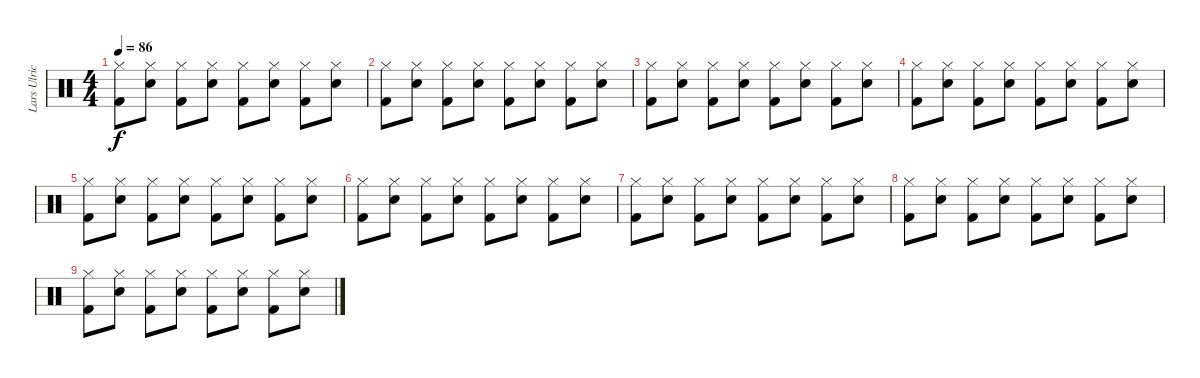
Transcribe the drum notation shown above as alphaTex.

\track ("Lars Ulrich" "Lars Ulric") {instrument percussion}
\staff {score}
\articulation defaults
\ts (4 4)
\tempo 86
\clef neutral
\ks c
("Hi-Hat (closed)" "Kick (hit) 2").8{dy f volume 14} ("Hi-Hat (closed)" "Electric Snare (hit)").8 ("Hi-Hat (closed)" "Kick (hit) 2").8 ("Hi-Hat (closed)" "Electric Snare (hit)").8 ("Hi-Hat (closed)" "Kick (hit) 2").8 ("Hi-Hat (closed)" "Electric Snare (hit)").8 ("Hi-Hat (closed)" "Kick (hit) 2").8 ("Hi-Hat (closed)" "Electric Snare (hit)").8 |
("Hi-Hat (closed)" "Kick (hit) 2").8{volume 13} ("Hi-Hat (closed)" "Electric Snare (hit)").8 ("Hi-Hat (closed)" "Kick (hit) 2").8 ("Hi-Hat (closed)" "Electric Snare (hit)").8 ("Hi-Hat (closed)" "Kick (hit) 2").8 ("Hi-Hat (closed)" "Electric Snare (hit)").8 ("Hi-Hat (closed)" "Kick (hit) 2").8 ("Hi-Hat (closed)" "Electric Snare (hit)").8 |
("Hi-Hat (closed)" "Kick (hit) 2").8{volume 12} ("Hi-Hat (closed)" "Electric Snare (hit)").8 ("Hi-Hat (closed)" "Kick (hit) 2").8 ("Hi-Hat (closed)" "Electric Snare (hit)").8 ("Hi-Hat (closed)" "Kick (hit) 2").8 ("Hi-Hat (closed)" "Electric Snare (hit)").8 ("Hi-Hat (closed)" "Kick (hit) 2").8 ("Hi-Hat (closed)" "Electric Snare (hit)").8 |
("Hi-Hat (closed)" "Kick (hit) 2").8{volume 10} ("Hi-Hat (closed)" "Electric Snare (hit)").8 ("Hi-Hat (closed)" "Kick (hit) 2").8 ("Hi-Hat (closed)" "Electric Snare (hit)").8 ("Hi-Hat (closed)" "Kick (hit) 2").8 ("Hi-Hat (closed)" "Electric Snare (hit)").8 ("Hi-Hat (closed)" "Kick (hit) 2").8 ("Hi-Hat (closed)" "Electric Snare (hit)").8 |
("Hi-Hat (closed)" "Kick (hit) 2").8{volume 8} ("Hi-Hat (closed)" "Electric Snare (hit)").8 ("Hi-Hat (closed)" "Kick (hit) 2").8 ("Hi-Hat (closed)" "Electric Snare (hit)").8 ("Hi-Hat (closed)" "Kick (hit) 2").8 ("Hi-Hat (closed)" "Electric Snare (hit)").8 ("Hi-Hat (closed)" "Kick (hit) 2").8 ("Hi-Hat (closed)" "Electric Snare (hit)").8 |
("Hi-Hat (closed)" "Kick (hit) 2").8{volume 6} ("Hi-Hat (closed)" "Electric Snare (hit)").8 ("Hi-Hat (closed)" "Kick (hit) 2").8 ("Hi-Hat (closed)" "Electric Snare (hit)").8 ("Hi-Hat (closed)" "Kick (hit) 2").8 ("Hi-Hat (closed)" "Electric Snare (hit)").8 ("Hi-Hat (closed)" "Kick (hit) 2").8 ("Hi-Hat (closed)" "Electric Snare (hit)").8 |
("Hi-Hat (closed)" "Kick (hit) 2").8{volume 4} ("Hi-Hat (closed)" "Electric Snare (hit)").8 ("Hi-Hat (closed)" "Kick (hit) 2").8 ("Hi-Hat (closed)" "Electric Snare (hit)").8 ("Hi-Hat (closed)" "Kick (hit) 2").8 ("Hi-Hat (closed)" "Electric Snare (hit)").8 ("Hi-Hat (closed)" "Kick (hit) 2").8 ("Hi-Hat (closed)" "Electric Snare (hit)").8 |
("Hi-Hat (closed)" "Kick (hit) 2").8{volume 2} ("Hi-Hat (closed)" "Electric Snare (hit)").8 ("Hi-Hat (closed)" "Kick (hit) 2").8 ("Hi-Hat (closed)" "Electric Snare (hit)").8 ("Hi-Hat (closed)" "Kick (hit) 2").8 ("Hi-Hat (closed)" "Electric Snare (hit)").8 ("Hi-Hat (closed)" "Kick (hit) 2").8 ("Hi-Hat (closed)" "Electric Snare (hit)").8 |
("Hi-Hat (closed)" "Kick (hit) 2").8{volume 0} ("Hi-Hat (closed)" "Electric Snare (hit)").8 ("Hi-Hat (closed)" "Kick (hit) 2").8 ("Hi-Hat (closed)" "Electric Snare (hit)").8 ("Hi-Hat (closed)" "Kick (hit) 2").8 ("Hi-Hat (closed)" "Electric Snare (hit)").8 ("Hi-Hat (closed)" "Kick (hit) 2").8 ("Hi-Hat (closed)" "Electric Snare (hit)").8
